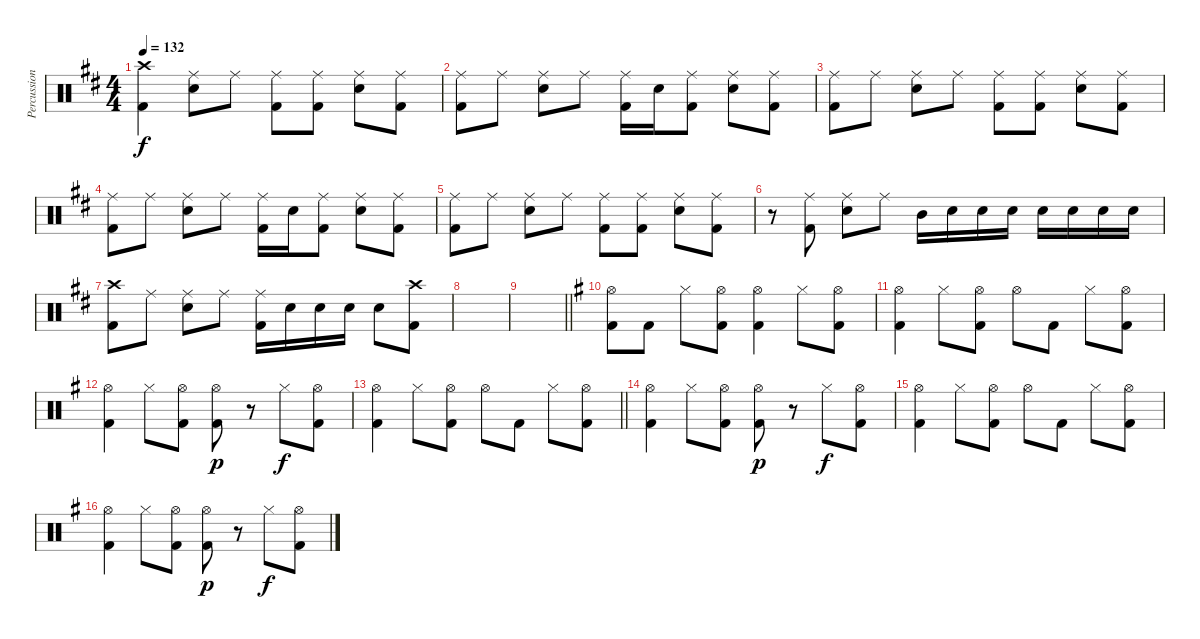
\track ("Percussion" "Percussion") {instrument percussion}
\staff {score}
\articulation defaults
\ts (4 4)
\tempo 132
\clef neutral
\ks d
("Crash high (hit)" "Kick (hit) 2").4{dy f} ("Ride (middle)" "Snare (hit) 2").8 "Ride (middle)".8 ("Ride (middle)" "Kick (hit) 2").8 ("Ride (middle)" "Kick (hit) 2").8 ("Ride (middle)" "Snare (hit) 2").8 ("Ride (middle)" "Kick (hit) 2").8 |
("Ride (middle)" "Kick (hit) 2").8 "Ride (middle)".8 ("Ride (middle)" "Snare (hit) 2").8 "Ride (middle)".8 ("Ride (middle)" "Kick (hit) 2").16 "Snare (hit) 2".16 ("Ride (middle)" "Kick (hit) 2").8 ("Ride (middle)" "Snare (hit) 2").8 ("Ride (middle)" "Kick (hit) 2").8 |
("Ride (middle)" "Kick (hit) 2").8 "Ride (middle)".8 ("Ride (middle)" "Snare (hit) 2").8 "Ride (middle)".8 ("Ride (middle)" "Kick (hit) 2").8 ("Ride (middle)" "Kick (hit) 2").8 ("Ride (middle)" "Snare (hit) 2").8 ("Ride (middle)" "Kick (hit) 2").8 |
("Ride (middle)" "Kick (hit) 2").8 "Ride (middle)".8 ("Ride (middle)" "Snare (hit) 2").8 "Ride (middle)".8 ("Ride (middle)" "Kick (hit) 2").16 "Snare (hit) 2".16 ("Ride (middle)" "Kick (hit) 2").8 ("Ride (middle)" "Snare (hit) 2").8 ("Ride (middle)" "Kick (hit) 2").8 |
("Ride (middle)" "Kick (hit) 2").8 "Ride (middle)".8 ("Ride (middle)" "Snare (hit) 2").8 "Ride (middle)".8 ("Ride (middle)" "Kick (hit) 2").8 ("Ride (middle)" "Kick (hit) 2").8 ("Ride (middle)" "Snare (hit) 2").8 ("Ride (middle)" "Kick (hit) 2").8 |
r.8 ("Ride (middle)" "Kick (hit) 2").8 ("Ride (middle)" "Snare (hit) 2").8 "Ride (middle)".8 "Mid Tom (hit)".16 "Snare (hit) 2".16 "Snare (hit) 2".16 "Snare (hit) 2".16 "Snare (hit) 2".16 "Snare (hit) 2".16 "Snare (hit) 2".16 "Snare (hit) 2".16 |
("Crash high (hit)" "Kick (hit) 2").8 "Ride (middle)".8 ("Ride (middle)" "Snare (hit) 2").8 "Ride (middle)".8 ("Ride (middle)" "Kick (hit) 2").16 "Snare (hit) 2".16 "Snare (hit) 2".16 "Snare (hit) 2".16 "Snare (hit) 2".8 ("Crash high (hit)" "Kick (hit) 2").8 |
|
\barLineRight lightlight
|
\ks eminor
("Hi-Hat (open)" "Kick (hit) 2").8 "Kick (hit) 2".8 "Hi-Hat (closed)".8 ("Hi-Hat (open)" "Kick (hit) 2").8 ("Hi-Hat (open)" "Kick (hit) 2").4 "Hi-Hat (closed)".8 ("Hi-Hat (open)" "Kick (hit) 2").8 |
("Hi-Hat (open)" "Kick (hit) 2").4 "Hi-Hat (closed)".8 ("Hi-Hat (open)" "Kick (hit) 2").8 "Hi-Hat (open)".8 "Kick (hit) 2".8 "Hi-Hat (closed)".8 ("Hi-Hat (open)" "Kick (hit) 2").8 |
("Hi-Hat (open)" "Kick (hit) 2").4 "Hi-Hat (closed)".8 ("Hi-Hat (open)" "Kick (hit) 2").8 ("Hi-Hat (open)" "Kick (hit) 2").8{dy p} r.8 "Hi-Hat (closed)".8{dy f} ("Hi-Hat (open)" "Kick (hit) 2").8 |
\barLineRight lightlight
("Hi-Hat (open)" "Kick (hit) 2").4 "Hi-Hat (closed)".8 ("Hi-Hat (open)" "Kick (hit) 2").8 "Hi-Hat (open)".8 "Kick (hit) 2".8 "Hi-Hat (closed)".8 ("Hi-Hat (open)" "Kick (hit) 2").8 |
("Hi-Hat (open)" "Kick (hit) 2").4 "Hi-Hat (closed)".8 ("Hi-Hat (open)" "Kick (hit) 2").8 ("Hi-Hat (open)" "Kick (hit) 2").8{dy p} r.8 "Hi-Hat (closed)".8{dy f} ("Hi-Hat (open)" "Kick (hit) 2").8 |
("Hi-Hat (open)" "Kick (hit) 2").4 "Hi-Hat (closed)".8 ("Hi-Hat (open)" "Kick (hit) 2").8 "Hi-Hat (open)".8 "Kick (hit) 2".8 "Hi-Hat (closed)".8 ("Hi-Hat (open)" "Kick (hit) 2").8 |
("Hi-Hat (open)" "Kick (hit) 2").4 "Hi-Hat (closed)".8 ("Hi-Hat (open)" "Kick (hit) 2").8 ("Hi-Hat (open)" "Kick (hit) 2").8{dy p} r.8 "Hi-Hat (closed)".8{dy f} ("Hi-Hat (open)" "Kick (hit) 2").8
